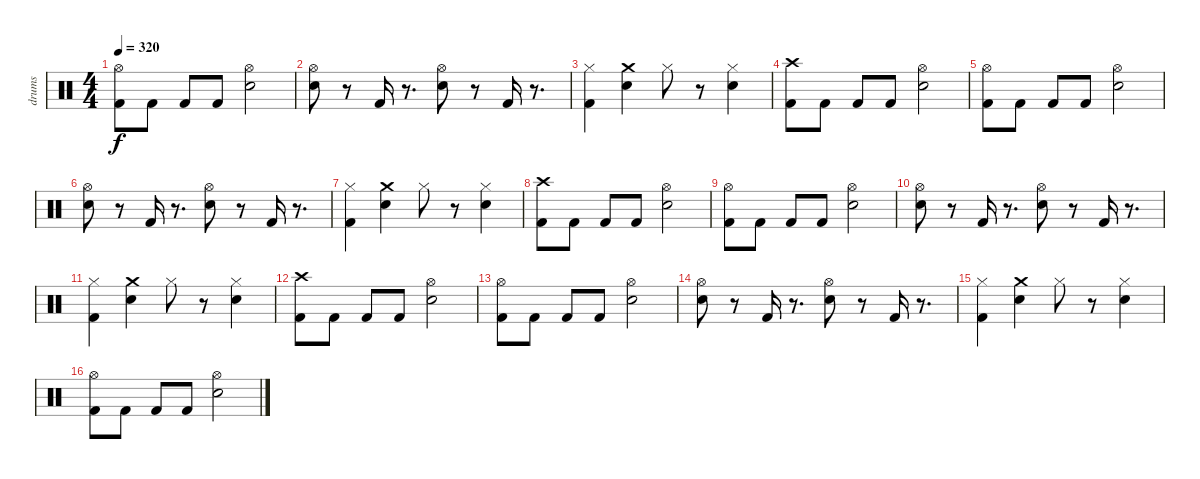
\track ("drums" "drums") {instrument percussion}
\staff {score}
\articulation defaults
\ts (4 4)
\tempo 320
\clef neutral
\ks c
("Hi-Hat (open)" "Kick (hit) 2").8{dy f} "Kick (hit) 2".8 "Kick (hit) 2".8 "Kick (hit) 2".8 ("Hi-Hat (open)" "Snare (hit) 2").2 |
("Hi-Hat (open)" "Snare (hit) 2").8 r.8 "Kick (hit) 2".16 r.8{d} ("Hi-Hat (open)" "Snare (hit) 2").8 r.8 "Kick (hit) 2".16 r.8{d} |
("Hi-Hat (closed)" "Kick (hit) 2").4 ("Snare (hit) 2" "Crash medium (hit)").4 "Hi-Hat (closed)".8 r.8 ("Hi-Hat (closed)" "Snare (hit) 2").4 |
("Crash high (hit)" "Kick (hit) 2").8 "Kick (hit) 2".8 "Kick (hit) 2".8 "Kick (hit) 2".8 ("Hi-Hat (open)" "Snare (hit) 2").2 |
("Hi-Hat (open)" "Kick (hit) 2").8 "Kick (hit) 2".8 "Kick (hit) 2".8 "Kick (hit) 2".8 ("Hi-Hat (open)" "Snare (hit) 2").2 |
("Hi-Hat (open)" "Snare (hit) 2").8 r.8 "Kick (hit) 2".16 r.8{d} ("Hi-Hat (open)" "Snare (hit) 2").8 r.8 "Kick (hit) 2".16 r.8{d} |
("Hi-Hat (closed)" "Kick (hit) 2").4 ("Snare (hit) 2" "Crash medium (hit)").4 "Hi-Hat (closed)".8 r.8 ("Hi-Hat (closed)" "Snare (hit) 2").4 |
("Crash high (hit)" "Kick (hit) 2").8 "Kick (hit) 2".8 "Kick (hit) 2".8 "Kick (hit) 2".8 ("Hi-Hat (open)" "Snare (hit) 2").2 |
("Hi-Hat (open)" "Kick (hit) 2").8 "Kick (hit) 2".8 "Kick (hit) 2".8 "Kick (hit) 2".8 ("Hi-Hat (open)" "Snare (hit) 2").2 |
("Hi-Hat (open)" "Snare (hit) 2").8 r.8 "Kick (hit) 2".16 r.8{d} ("Hi-Hat (open)" "Snare (hit) 2").8 r.8 "Kick (hit) 2".16 r.8{d} |
("Hi-Hat (closed)" "Kick (hit) 2").4 ("Snare (hit) 2" "Crash medium (hit)").4 "Hi-Hat (closed)".8 r.8 ("Hi-Hat (closed)" "Snare (hit) 2").4 |
("Crash high (hit)" "Kick (hit) 2").8 "Kick (hit) 2".8 "Kick (hit) 2".8 "Kick (hit) 2".8 ("Hi-Hat (open)" "Snare (hit) 2").2 |
("Hi-Hat (open)" "Kick (hit) 2").8 "Kick (hit) 2".8 "Kick (hit) 2".8 "Kick (hit) 2".8 ("Hi-Hat (open)" "Snare (hit) 2").2 |
("Hi-Hat (open)" "Snare (hit) 2").8 r.8 "Kick (hit) 2".16 r.8{d} ("Hi-Hat (open)" "Snare (hit) 2").8 r.8 "Kick (hit) 2".16 r.8{d} |
("Hi-Hat (closed)" "Kick (hit) 2").4 ("Snare (hit) 2" "Crash medium (hit)").4 "Hi-Hat (closed)".8 r.8 ("Hi-Hat (closed)" "Snare (hit) 2").4 |
("Hi-Hat (open)" "Kick (hit) 2").8 "Kick (hit) 2".8 "Kick (hit) 2".8 "Kick (hit) 2".8 ("Hi-Hat (open)" "Snare (hit) 2").2
